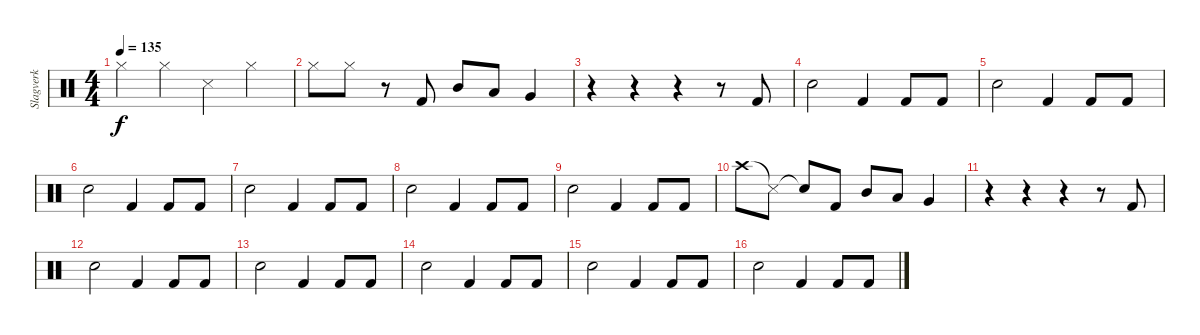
\track ("Slagverk" "Slagverk") {instrument percussion}
\staff {score}
\articulation defaults
\ts (4 4)
\tempo 135
\clef neutral
\ks c "Hi-Hat (closed)".4{dy f} "Hi-Hat (closed)".4 "Snare (side stick) 3".4 "Hi-Hat (closed)".4
|
"Hi-Hat (closed)".8 "Hi-Hat (closed)".8 r.8 "Kick (hit) 2".8 "Mid Tom (hit)".8 "Low Tom (hit)".8 "Very Low Tom (hit)".4 |
r.4 r.4 r.4 r.8 "Kick (hit) 2".8 |
"Snare (hit) 2".2 "Kick (hit) 2".4 "Kick (hit) 2".8 "Kick (hit) 2".8 |
"Snare (hit) 2".2 "Kick (hit) 2".4 "Kick (hit) 2".8 "Kick (hit) 2".8 |
"Snare (hit) 2".2 "Kick (hit) 2".4 "Kick (hit) 2".8 "Kick (hit) 2".8 |
"Snare (hit) 2".2 "Kick (hit) 2".4 "Kick (hit) 2".8 "Kick (hit) 2".8 |
"Snare (hit) 2".2 "Kick (hit) 2".4 "Kick (hit) 2".8 "Kick (hit) 2".8 |
"Snare (hit) 2".2 "Kick (hit) 2".4 "Kick (hit) 2".8 "Kick (hit) 2".8 |
"Crash high (hit)".8 "Snare (side stick) 3"{t}.8 "Snare (hit)"{t}.8 "Kick (hit) 2".8 "Mid Tom (hit)".8 "Low Tom (hit)".8 "Very Low Tom (hit)".4 |
r.4 r.4 r.4 r.8 "Kick (hit) 2".8 |
"Snare (hit) 2".2 "Kick (hit) 2".4 "Kick (hit) 2".8 "Kick (hit) 2".8 |
"Snare (hit) 2".2 "Kick (hit) 2".4 "Kick (hit) 2".8 "Kick (hit) 2".8 |
"Snare (hit) 2".2 "Kick (hit) 2".4 "Kick (hit) 2".8 "Kick (hit) 2".8 |
"Snare (hit) 2".2 "Kick (hit) 2".4 "Kick (hit) 2".8 "Kick (hit) 2".8 |
"Snare (hit) 2".2 "Kick (hit) 2".4 "Kick (hit) 2".8 "Kick (hit) 2".8
